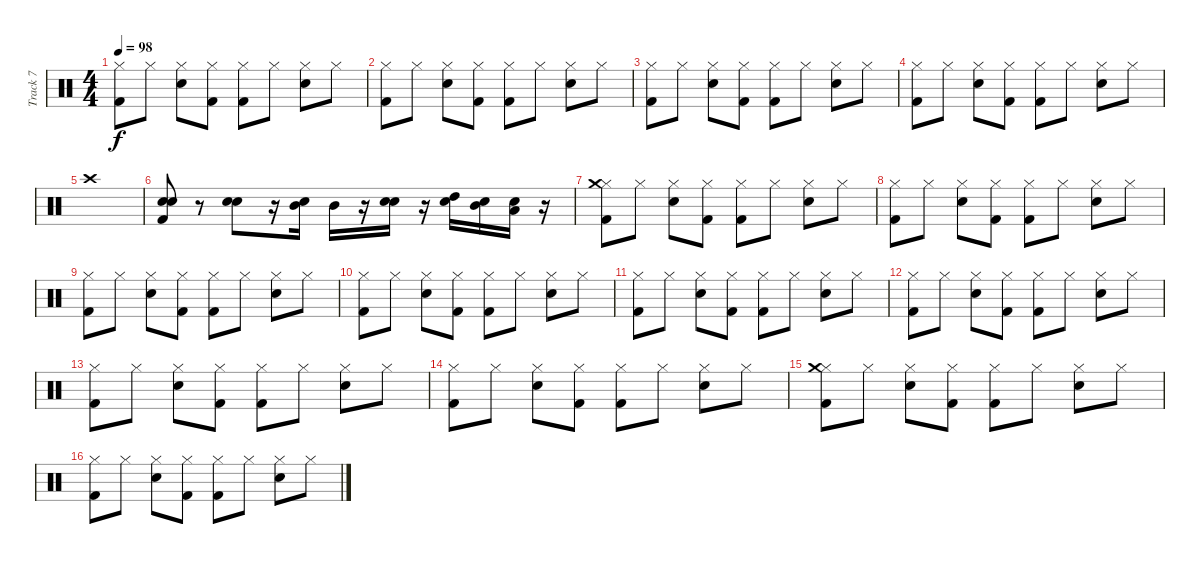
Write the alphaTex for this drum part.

\track ("Track 7" "Track 7") {instrument percussion}
\staff {score}
\articulation defaults
\ts (4 4)
\tempo 98
\clef neutral
\ks c
("Hi-Hat (closed)" "Kick (hit) 2").8{dy f} "Hi-Hat (closed)".8 ("Hi-Hat (closed)" "Electric Snare (hit)").8 ("Hi-Hat (closed)" "Kick (hit) 2").8 ("Hi-Hat (closed)" "Kick (hit) 2").8 "Hi-Hat (closed)".8 ("Hi-Hat (closed)" "Electric Snare (hit)").8 "Hi-Hat (closed)".8 |
("Hi-Hat (closed)" "Kick (hit) 2").8 "Hi-Hat (closed)".8 ("Hi-Hat (closed)" "Electric Snare (hit)").8 ("Hi-Hat (closed)" "Kick (hit) 2").8 ("Hi-Hat (closed)" "Kick (hit) 2").8 "Hi-Hat (closed)".8 ("Hi-Hat (closed)" "Electric Snare (hit)").8 "Hi-Hat (closed)".8 |
("Hi-Hat (closed)" "Kick (hit) 2").8 "Hi-Hat (closed)".8 ("Hi-Hat (closed)" "Electric Snare (hit)").8 ("Hi-Hat (closed)" "Kick (hit) 2").8 ("Hi-Hat (closed)" "Kick (hit) 2").8 "Hi-Hat (closed)".8 ("Hi-Hat (closed)" "Electric Snare (hit)").8 "Hi-Hat (closed)".8 |
("Hi-Hat (closed)" "Kick (hit) 2").8 "Hi-Hat (closed)".8 ("Hi-Hat (closed)" "Electric Snare (hit)").8 ("Hi-Hat (closed)" "Kick (hit) 2").8 ("Hi-Hat (closed)" "Kick (hit) 2").8 "Hi-Hat (closed)".8 ("Hi-Hat (closed)" "Electric Snare (hit)").8 "Hi-Hat (closed)".8 |
"Crash high (hit)".1 |
("Electric Snare (hit)" "Electric Snare (hit)" "Kick (hit) 2").8 r.8 ("Electric Snare (hit)" "Electric Snare (hit)").8 r.16 ("Mid Tom (hit)" "Electric Snare (hit)").16 "Mid Tom (hit)".16 r.16 ("Electric Snare (hit)" "Electric Snare (hit)").16 r.16 ("Electric Snare (hit)" "High Tom (hit)").16 ("Electric Snare (hit)" "Mid Tom (hit)").16 ("Electric Snare (hit)" "Low Tom (hit)").16 r.16 |
("Hi-Hat (closed)" "Crash medium (hit)" "Kick (hit) 2").8 "Hi-Hat (closed)".8 ("Hi-Hat (closed)" "Electric Snare (hit)").8 ("Hi-Hat (closed)" "Kick (hit) 2").8 ("Hi-Hat (closed)" "Kick (hit) 2").8 "Hi-Hat (closed)".8 ("Hi-Hat (closed)" "Electric Snare (hit)").8 "Hi-Hat (closed)".8 |
("Hi-Hat (closed)" "Kick (hit) 2").8 "Hi-Hat (closed)".8 ("Hi-Hat (closed)" "Electric Snare (hit)").8 ("Hi-Hat (closed)" "Kick (hit) 2").8 ("Hi-Hat (closed)" "Kick (hit) 2").8 "Hi-Hat (closed)".8 ("Hi-Hat (closed)" "Electric Snare (hit)").8 "Hi-Hat (closed)".8 |
("Hi-Hat (closed)" "Kick (hit) 2").8 "Hi-Hat (closed)".8 ("Hi-Hat (closed)" "Electric Snare (hit)").8 ("Hi-Hat (closed)" "Kick (hit) 2").8 ("Hi-Hat (closed)" "Kick (hit) 2").8 "Hi-Hat (closed)".8 ("Hi-Hat (closed)" "Electric Snare (hit)").8 "Hi-Hat (closed)".8 |
("Hi-Hat (closed)" "Kick (hit) 2").8 "Hi-Hat (closed)".8 ("Hi-Hat (closed)" "Electric Snare (hit)").8 ("Hi-Hat (closed)" "Kick (hit) 2").8 ("Hi-Hat (closed)" "Kick (hit) 2").8 "Hi-Hat (closed)".8 ("Hi-Hat (closed)" "Electric Snare (hit)").8 "Hi-Hat (closed)".8 |
("Hi-Hat (closed)" "Kick (hit) 2").8 "Hi-Hat (closed)".8 ("Hi-Hat (closed)" "Electric Snare (hit)").8 ("Hi-Hat (closed)" "Kick (hit) 2").8 ("Hi-Hat (closed)" "Kick (hit) 2").8 "Hi-Hat (closed)".8 ("Hi-Hat (closed)" "Electric Snare (hit)").8 "Hi-Hat (closed)".8 |
("Hi-Hat (closed)" "Kick (hit) 2").8 "Hi-Hat (closed)".8 ("Hi-Hat (closed)" "Electric Snare (hit)").8 ("Hi-Hat (closed)" "Kick (hit) 2").8 ("Hi-Hat (closed)" "Kick (hit) 2").8 "Hi-Hat (closed)".8 ("Hi-Hat (closed)" "Electric Snare (hit)").8 "Hi-Hat (closed)".8 |
("Hi-Hat (closed)" "Kick (hit) 2").8 "Hi-Hat (closed)".8 ("Hi-Hat (closed)" "Electric Snare (hit)").8 ("Hi-Hat (closed)" "Kick (hit) 2").8 ("Hi-Hat (closed)" "Kick (hit) 2").8 "Hi-Hat (closed)".8 ("Hi-Hat (closed)" "Electric Snare (hit)").8 "Hi-Hat (closed)".8 |
("Hi-Hat (closed)" "Kick (hit) 2").8 "Hi-Hat (closed)".8 ("Hi-Hat (closed)" "Electric Snare (hit)").8 ("Hi-Hat (closed)" "Kick (hit) 2").8 ("Hi-Hat (closed)" "Kick (hit) 2").8 "Hi-Hat (closed)".8 ("Hi-Hat (closed)" "Electric Snare (hit)").8 "Hi-Hat (closed)".8 |
("Hi-Hat (closed)" "Crash medium (hit)" "Kick (hit) 2").8 "Hi-Hat (closed)".8 ("Hi-Hat (closed)" "Electric Snare (hit)").8 ("Hi-Hat (closed)" "Kick (hit) 2").8 ("Hi-Hat (closed)" "Kick (hit) 2").8 "Hi-Hat (closed)".8 ("Hi-Hat (closed)" "Electric Snare (hit)").8 "Hi-Hat (closed)".8 |
("Hi-Hat (closed)" "Kick (hit) 2").8 "Hi-Hat (closed)".8 ("Hi-Hat (closed)" "Electric Snare (hit)").8 ("Hi-Hat (closed)" "Kick (hit) 2").8 ("Hi-Hat (closed)" "Kick (hit) 2").8 "Hi-Hat (closed)".8 ("Hi-Hat (closed)" "Electric Snare (hit)").8 "Hi-Hat (closed)".8
